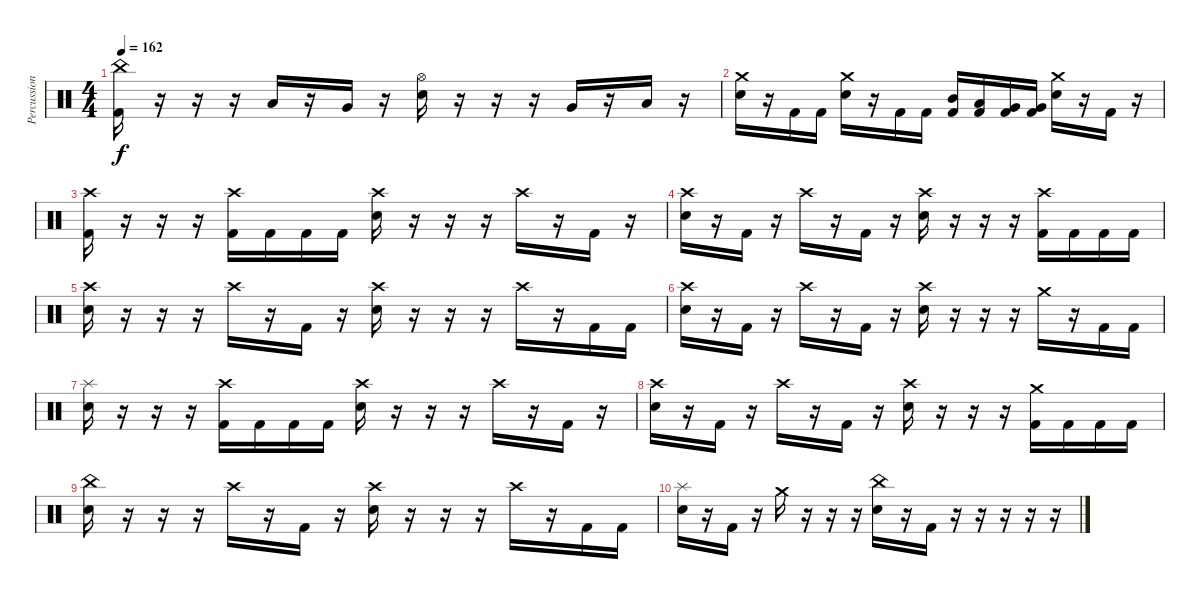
\track ("Percussion" "Percussion") {instrument percussion}
\staff {score}
\articulation defaults
\ts (4 4)
\tempo 162
\clef neutral
\ks c
("China (hit)" "Kick (hit) 2").16{dy f} r.16 r.16 r.16 "Low Tom (hit)".16 r.16 "Very Low Tom (hit)".16 r.16 ("Hi-Hat (open)" "Electric Snare (hit)").16 r.16 r.16 r.16 "Very Low Tom (hit)".16 r.16 "Low Tom (hit)".16 r.16 |
("Crash medium (hit)" "Electric Snare (hit)").16 r.16 "Kick (hit) 2".16 "Kick (hit) 2".16 ("Crash medium (hit)" "Electric Snare (hit)").16 r.16 "Kick (hit) 2".16 "Kick (hit) 2".16 ("Mid Tom (hit)" "Kick (hit) 2").16 ("Low Tom (hit)" "Kick (hit) 2").16 ("Very Low Tom (hit)" "Kick (hit) 2").16 ("Very Low Tom (hit)" "Kick (hit) 2").16 ("Crash medium (hit)" "Electric Snare (hit)").16 r.16 "Kick (hit) 2".16 r.16 |
("Crash high (hit)" "Kick (hit) 2").16 r.16 r.16 r.16 ("Crash high (hit)" "Kick (hit) 2").16 "Kick (hit) 2".16 "Kick (hit) 2".16 "Kick (hit) 2".16 ("Crash high (hit)" "Electric Snare (hit)").16 r.16 r.16 r.16 "Crash high (hit)".16 r.16 "Kick (hit) 2".16 r.16 |
("Crash high (hit)" "Electric Snare (hit)").16 r.16 "Kick (hit) 2".16 r.16 "Crash high (hit)".16 r.16 "Kick (hit) 2".16 r.16 ("Crash high (hit)" "Electric Snare (hit)").16 r.16 r.16 r.16 ("Crash high (hit)" "Kick (hit) 2").16 "Kick (hit) 2".16 "Kick (hit) 2".16 "Kick (hit) 2".16 |
("Crash high (hit)" "Electric Snare (hit)").16 r.16 r.16 r.16 "Crash high (hit)".16 r.16 "Kick (hit) 2".16 r.16 ("Crash high (hit)" "Electric Snare (hit)").16 r.16 r.16 r.16 "Crash high (hit)".16 r.16 "Kick (hit) 2".16 "Kick (hit) 2".16 |
("Crash high (hit)" "Electric Snare (hit)").16 r.16 "Kick (hit) 2".16 r.16 "Crash high (hit)".16 r.16 "Kick (hit) 2".16 r.16 ("Crash high (hit)" "Electric Snare (hit)").16 r.16 r.16 r.16 "Crash medium (hit)".16 r.16 "Kick (hit) 2".16 "Kick (hit) 2".16 |
("Splash (hit)" "Electric Snare (hit)").16 r.16 r.16 r.16 ("Crash high (hit)" "Kick (hit) 2").16 "Kick (hit) 2".16 "Kick (hit) 2".16 "Kick (hit) 2".16 ("Crash high (hit)" "Electric Snare (hit)").16 r.16 r.16 r.16 "Crash high (hit)".16 r.16 "Kick (hit) 2".16 r.16 |
("Crash high (hit)" "Electric Snare (hit)").16 r.16 "Kick (hit) 2".16 r.16 "Crash high (hit)".16 r.16 "Kick (hit) 2".16 r.16 ("Crash high (hit)" "Electric Snare (hit)").16 r.16 r.16 r.16 ("Crash medium (hit)" "Kick (hit) 2").16 "Kick (hit) 2".16 "Kick (hit) 2".16 "Kick (hit) 2".16 |
("China (hit)" "Electric Snare (hit)").16 r.16 r.16 r.16 "Crash high (hit)".16 r.16 "Kick (hit) 2".16 r.16 ("Crash high (hit)" "Electric Snare (hit)").16 r.16 r.16 r.16 "Crash high (hit)".16 r.16 "Kick (hit) 2".16 "Kick (hit) 2".16 |
("Splash (hit)" "Electric Snare (hit)").16 r.16 "Kick (hit) 2".16 r.16 "Crash medium (hit)".16 r.16 r.16 r.16 ("China (hit)" "Electric Snare (hit)").16 r.16 "Kick (hit) 2".16 r.16 r.16 r.16 r.16 r.16
